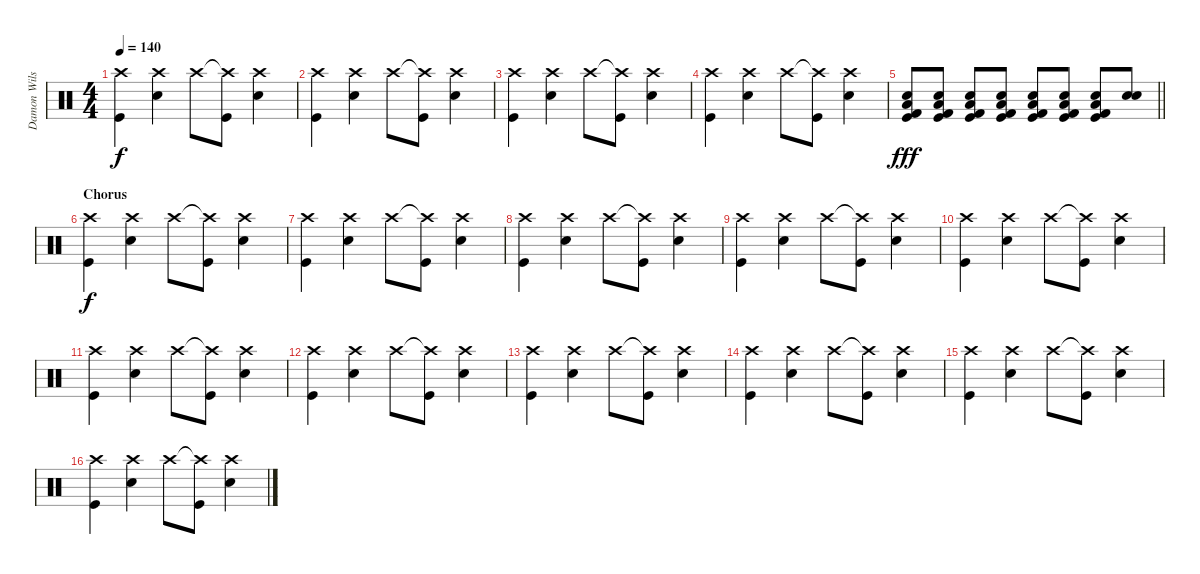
\track ("Damon Wilson" "Damon Wils") {instrument percussion}
\staff {score}
\articulation defaults
\ts (4 4)
\tempo 140
\clef neutral
\ks c
("Crash high (hit)" "Kick (hit)").4{dy f} ("Crash high (hit)" "Snare (hit) 2").4 "Crash high (hit)".8 ("Crash high (hit)"{t} "Kick (hit)").8 ("Crash high (hit)" "Snare (hit) 2").4 |
("Crash high (hit)" "Kick (hit)").4 ("Crash high (hit)" "Snare (hit) 2").4 "Crash high (hit)".8 ("Crash high (hit)"{t} "Kick (hit)").8 ("Crash high (hit)" "Snare (hit) 2").4 |
("Crash high (hit)" "Kick (hit)").4 ("Crash high (hit)" "Snare (hit) 2").4 "Crash high (hit)".8 ("Crash high (hit)"{t} "Kick (hit)").8 ("Crash high (hit)" "Snare (hit) 2").4 |
("Crash high (hit)" "Kick (hit)").4 ("Crash high (hit)" "Snare (hit) 2").4 "Crash high (hit)".8 ("Crash high (hit)"{t} "Kick (hit)").8 ("Crash high (hit)" "Snare (hit) 2").4 |
\barLineRight lightlight
("Snare (hit) 2" "Low Floor Tom (hit)" "Kick (hit)" "Kick (hit) 2").8{dy fff} ("Snare (hit) 2" "Low Floor Tom (hit)" "Kick (hit)" "Kick (hit) 2").8 ("Snare (hit) 2" "Low Floor Tom (hit)" "Kick (hit)" "Kick (hit) 2").8 ("Snare (hit) 2" "Low Floor Tom (hit)" "Kick (hit)" "Kick (hit) 2").8 ("Snare (hit) 2" "Low Floor Tom (hit)" "Kick (hit)" "Kick (hit) 2").8 ("Snare (hit) 2" "Low Floor Tom (hit)" "Kick (hit)" "Kick (hit) 2").8 ("Snare (hit) 2" "Low Floor Tom (hit)" "Kick (hit)" "Kick (hit) 2").8 ("Snare (hit) 2" "Snare (hit) 2").8 |
\section ("" "Chorus")
("Crash high (hit)" "Kick (hit)").4{dy f} ("Crash high (hit)" "Snare (hit) 2").4 "Crash high (hit)".8 ("Crash high (hit)"{t} "Kick (hit)").8 ("Crash high (hit)" "Snare (hit) 2").4 |
("Crash high (hit)" "Kick (hit)").4 ("Crash high (hit)" "Snare (hit) 2").4 "Crash high (hit)".8 ("Crash high (hit)"{t} "Kick (hit)").8 ("Crash high (hit)" "Snare (hit) 2").4 |
("Crash high (hit)" "Kick (hit)").4 ("Crash high (hit)" "Snare (hit) 2").4 "Crash high (hit)".8 ("Crash high (hit)"{t} "Kick (hit)").8 ("Crash high (hit)" "Snare (hit) 2").4 |
("Crash high (hit)" "Kick (hit)").4 ("Crash high (hit)" "Snare (hit) 2").4 "Crash high (hit)".8 ("Crash high (hit)"{t} "Kick (hit)").8 ("Crash high (hit)" "Snare (hit) 2").4 |
("Crash high (hit)" "Kick (hit)").4 ("Crash high (hit)" "Snare (hit) 2").4 "Crash high (hit)".8 ("Crash high (hit)"{t} "Kick (hit)").8 ("Crash high (hit)" "Snare (hit) 2").4 |
("Crash high (hit)" "Kick (hit)").4 ("Crash high (hit)" "Snare (hit) 2").4 "Crash high (hit)".8 ("Crash high (hit)"{t} "Kick (hit)").8 ("Crash high (hit)" "Snare (hit) 2").4 |
("Crash high (hit)" "Kick (hit)").4 ("Crash high (hit)" "Snare (hit) 2").4 "Crash high (hit)".8 ("Crash high (hit)"{t} "Kick (hit)").8 ("Crash high (hit)" "Snare (hit) 2").4 |
("Crash high (hit)" "Kick (hit)").4 ("Crash high (hit)" "Snare (hit) 2").4 "Crash high (hit)".8 ("Crash high (hit)"{t} "Kick (hit)").8 ("Crash high (hit)" "Snare (hit) 2").4 |
("Crash high (hit)" "Kick (hit)").4{volume 14} ("Crash high (hit)" "Snare (hit) 2").4 "Crash high (hit)".8 ("Crash high (hit)"{t} "Kick (hit)").8 ("Crash high (hit)" "Snare (hit) 2").4 |
("Crash high (hit)" "Kick (hit)").4 ("Crash high (hit)" "Snare (hit) 2").4 "Crash high (hit)".8 ("Crash high (hit)"{t} "Kick (hit)").8 ("Crash high (hit)" "Snare (hit) 2").4 |
("Crash high (hit)" "Kick (hit)").4 ("Crash high (hit)" "Snare (hit) 2").4 "Crash high (hit)".8 ("Crash high (hit)"{t} "Kick (hit)").8 ("Crash high (hit)" "Snare (hit) 2").4
